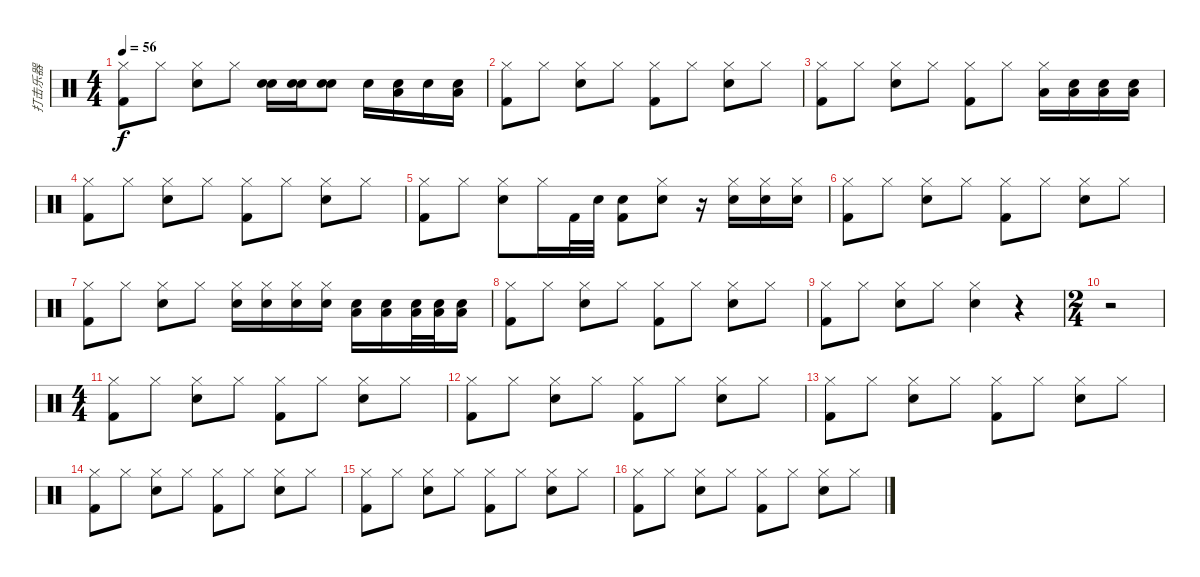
\track ("打击乐器" "打击乐器") {instrument percussion}
\staff {score}
\articulation defaults
\ts (4 4)
\tempo 56
\clef neutral
\ks c
("Hi-Hat (closed)" "Kick (hit) 2").8{dy f} "Hi-Hat (closed)".8 ("Hi-Hat (closed)" "Snare (hit) 2").8 "Hi-Hat (closed)".8 ("Electric Snare (hit)" "Snare (hit) 2").16 ("Electric Snare (hit)" "Snare (hit) 2").16 ("Electric Snare (hit)" "Snare (hit) 2").8 "Snare (hit) 2".16 ("Snare (hit) 2" "Low Tom (hit)").16 "Snare (hit) 2".16 ("Snare (hit) 2" "Low Tom (hit)").16 |
("Hi-Hat (closed)" "Kick (hit) 2").8 "Hi-Hat (closed)".8 ("Hi-Hat (closed)" "Snare (hit) 2").8 "Hi-Hat (closed)".8 ("Hi-Hat (closed)" "Kick (hit) 2").8 "Hi-Hat (closed)".8 ("Hi-Hat (closed)" "Snare (hit) 2").8 "Hi-Hat (closed)".8 |
("Hi-Hat (closed)" "Kick (hit) 2").8 "Hi-Hat (closed)".8 ("Hi-Hat (closed)" "Snare (hit) 2").8 "Hi-Hat (closed)".8 ("Hi-Hat (closed)" "Kick (hit) 2").8 "Hi-Hat (closed)".8 ("Hi-Hat (closed)" "Low Tom (hit)").16 ("Snare (hit) 2" "Low Tom (hit)").16 ("Snare (hit) 2" "Low Tom (hit)").16 ("Snare (hit) 2" "Low Tom (hit)").16 |
("Hi-Hat (closed)" "Kick (hit) 2").8 "Hi-Hat (closed)".8 ("Hi-Hat (closed)" "Snare (hit) 2").8 "Hi-Hat (closed)".8 ("Hi-Hat (closed)" "Kick (hit) 2").8 "Hi-Hat (closed)".8 ("Hi-Hat (closed)" "Snare (hit) 2").8 "Hi-Hat (closed)".8 |
("Hi-Hat (closed)" "Kick (hit) 2").8 "Hi-Hat (closed)".8 ("Hi-Hat (closed)" "Snare (hit) 2").8 "Hi-Hat (closed)".16 "Kick (hit) 2".32 "Snare (hit) 2".32 ("Snare (hit) 2" "Kick (hit) 2").8 ("Hi-Hat (closed)" "Snare (hit) 2").8 r.16 ("Snare (hit) 2" "Hi-Hat (closed)").16 ("Snare (hit) 2" "Hi-Hat (closed)").16 ("Snare (hit) 2" "Hi-Hat (closed)").16 |
("Hi-Hat (closed)" "Kick (hit) 2").8 "Hi-Hat (closed)".8 ("Hi-Hat (closed)" "Snare (hit) 2").8 "Hi-Hat (closed)".8 ("Hi-Hat (closed)" "Kick (hit) 2").8 "Hi-Hat (closed)".8 ("Hi-Hat (closed)" "Snare (hit) 2").8 "Hi-Hat (closed)".8 |
("Hi-Hat (closed)" "Kick (hit) 2").8 "Hi-Hat (closed)".8 ("Hi-Hat (closed)" "Snare (hit) 2").8 "Hi-Hat (closed)".8 ("Snare (hit) 2" "Hi-Hat (closed)").16 ("Snare (hit) 2" "Hi-Hat (closed)").16 ("Snare (hit) 2" "Hi-Hat (closed)").16 ("Snare (hit) 2" "Hi-Hat (closed)").16 ("Snare (hit) 2" "Low Tom (hit)").16 ("Snare (hit) 2" "Low Tom (hit)").16 ("Snare (hit) 2" "Low Tom (hit)").32 ("Snare (hit) 2" "Low Tom (hit)").32 ("Snare (hit) 2" "Low Tom (hit)").16 |
("Hi-Hat (closed)" "Kick (hit) 2").8 "Hi-Hat (closed)".8 ("Hi-Hat (closed)" "Snare (hit) 2").8 "Hi-Hat (closed)".8 ("Hi-Hat (closed)" "Kick (hit) 2").8 "Hi-Hat (closed)".8 ("Hi-Hat (closed)" "Snare (hit) 2").8 "Hi-Hat (closed)".8 |
("Hi-Hat (closed)" "Kick (hit) 2").8 "Hi-Hat (closed)".8 ("Hi-Hat (closed)" "Snare (hit) 2").8 "Hi-Hat (closed)".8 ("Hi-Hat (closed)" "Snare (hit) 2").4 r.4 |
\ts (2 4)
r.2 |
\ts (4 4)
("Hi-Hat (closed)" "Kick (hit) 2").8 "Hi-Hat (closed)".8 ("Hi-Hat (closed)" "Snare (hit) 2").8 "Hi-Hat (closed)".8 ("Hi-Hat (closed)" "Kick (hit) 2").8 "Hi-Hat (closed)".8 ("Hi-Hat (closed)" "Snare (hit) 2").8 "Hi-Hat (closed)".8 |
("Hi-Hat (closed)" "Kick (hit) 2").8 "Hi-Hat (closed)".8 ("Hi-Hat (closed)" "Snare (hit) 2").8 "Hi-Hat (closed)".8 ("Hi-Hat (closed)" "Kick (hit) 2").8 "Hi-Hat (closed)".8 ("Hi-Hat (closed)" "Snare (hit) 2").8 "Hi-Hat (closed)".8 |
("Hi-Hat (closed)" "Kick (hit) 2").8 "Hi-Hat (closed)".8 ("Hi-Hat (closed)" "Snare (hit) 2").8 "Hi-Hat (closed)".8 ("Hi-Hat (closed)" "Kick (hit) 2").8 "Hi-Hat (closed)".8 ("Hi-Hat (closed)" "Snare (hit) 2").8 "Hi-Hat (closed)".8 |
("Hi-Hat (closed)" "Kick (hit) 2").8 "Hi-Hat (closed)".8 ("Hi-Hat (closed)" "Snare (hit) 2").8 "Hi-Hat (closed)".8 ("Hi-Hat (closed)" "Kick (hit) 2").8 "Hi-Hat (closed)".8 ("Hi-Hat (closed)" "Snare (hit) 2").8 "Hi-Hat (closed)".8 |
("Hi-Hat (closed)" "Kick (hit) 2").8 "Hi-Hat (closed)".8 ("Hi-Hat (closed)" "Snare (hit) 2").8 "Hi-Hat (closed)".8 ("Hi-Hat (closed)" "Kick (hit) 2").8 "Hi-Hat (closed)".8 ("Hi-Hat (closed)" "Snare (hit) 2").8 "Hi-Hat (closed)".8 |
("Hi-Hat (closed)" "Kick (hit) 2").8 "Hi-Hat (closed)".8 ("Hi-Hat (closed)" "Snare (hit) 2").8 "Hi-Hat (closed)".8 ("Hi-Hat (closed)" "Kick (hit) 2").8 "Hi-Hat (closed)".8 ("Hi-Hat (closed)" "Snare (hit) 2").8 "Hi-Hat (closed)".8
